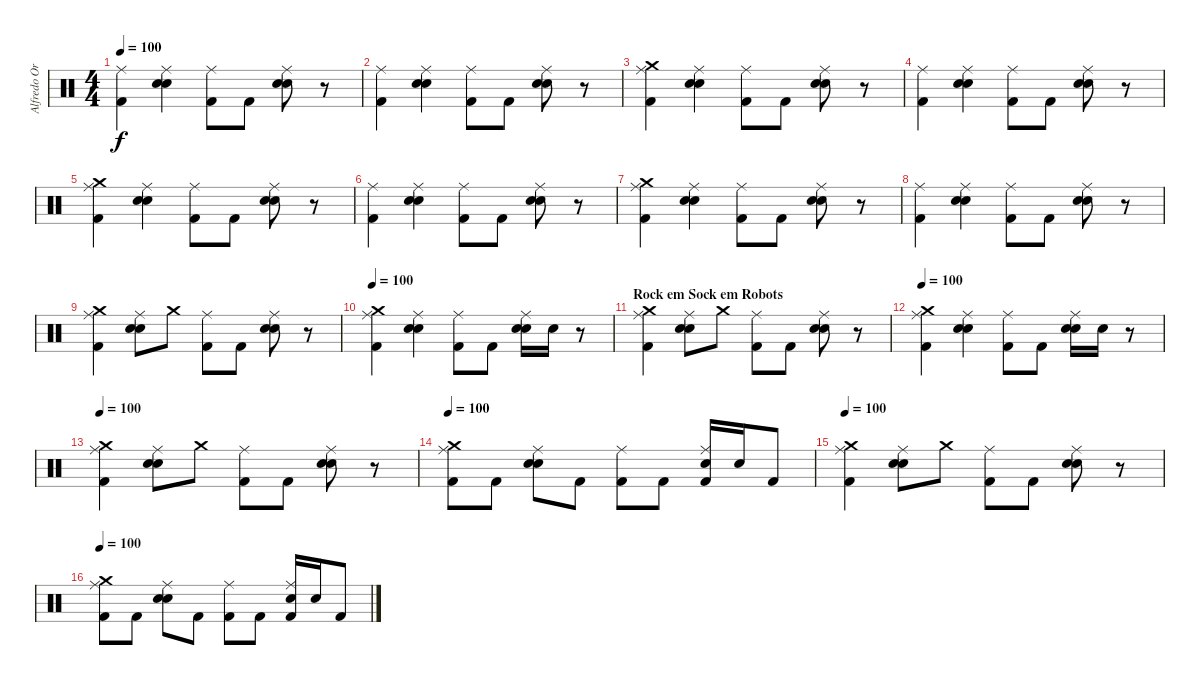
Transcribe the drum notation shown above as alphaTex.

\track ("Alfredo Ortiz (Drums)" "Alfredo Or") {instrument percussion}
\staff {score}
\articulation defaults
\ts (4 4)
\tempo 100
\clef neutral
\ks c
("Kick (hit) 2" "Ride (middle)").4{dy f} ("Snare (hit) 2" "Electric Snare (hit)" "Ride (middle)").4 ("Kick (hit) 2" "Ride (middle)").8 "Kick (hit) 2".8 ("Snare (hit) 2" "Electric Snare (hit)" "Ride (middle)").8 r.8 |
("Kick (hit) 2" "Ride (middle)").4 ("Snare (hit) 2" "Electric Snare (hit)" "Ride (middle)").4 ("Kick (hit) 2" "Ride (middle)").8 "Kick (hit) 2".8 ("Snare (hit) 2" "Electric Snare (hit)" "Ride (middle)").8 r.8 |
("Kick (hit) 2" "Ride (middle)" "Crash medium (hit)").4 ("Snare (hit) 2" "Electric Snare (hit)" "Ride (middle)").4 ("Kick (hit) 2" "Ride (middle)").8 "Kick (hit) 2".8 ("Snare (hit) 2" "Electric Snare (hit)" "Ride (middle)").8 r.8 |
("Kick (hit) 2" "Ride (middle)").4 ("Snare (hit) 2" "Electric Snare (hit)" "Ride (middle)").4 ("Kick (hit) 2" "Ride (middle)").8 "Kick (hit) 2".8 ("Snare (hit) 2" "Electric Snare (hit)" "Ride (middle)").8 r.8 |
("Kick (hit) 2" "Ride (middle)" "Crash medium (hit)").4 ("Snare (hit) 2" "Electric Snare (hit)" "Ride (middle)").4 ("Kick (hit) 2" "Ride (middle)").8 "Kick (hit) 2".8 ("Snare (hit) 2" "Electric Snare (hit)" "Ride (middle)").8 r.8 |
("Kick (hit) 2" "Ride (middle)").4 ("Snare (hit) 2" "Electric Snare (hit)" "Ride (middle)").4 ("Kick (hit) 2" "Ride (middle)").8 "Kick (hit) 2".8 ("Snare (hit) 2" "Electric Snare (hit)" "Ride (middle)").8 r.8 |
("Kick (hit) 2" "Ride (middle)" "Crash medium (hit)").4 ("Snare (hit) 2" "Electric Snare (hit)" "Ride (middle)").4 ("Kick (hit) 2" "Ride (middle)").8 "Kick (hit) 2".8 ("Snare (hit) 2" "Electric Snare (hit)" "Ride (middle)").8 r.8 |
("Kick (hit) 2" "Ride (middle)").4 ("Snare (hit) 2" "Electric Snare (hit)" "Ride (middle)").4 ("Kick (hit) 2" "Ride (middle)").8 "Kick (hit) 2".8 ("Snare (hit) 2" "Electric Snare (hit)" "Ride (middle)").8 r.8 |
("Kick (hit) 2" "Ride (middle)" "Crash medium (hit)").4 ("Snare (hit) 2" "Electric Snare (hit)" "Ride (middle)").8 "Crash medium (hit)".8 ("Kick (hit) 2" "Ride (middle)").8 "Kick (hit) 2".8 ("Snare (hit) 2" "Electric Snare (hit)" "Ride (middle)").8 r.8 |
\tempo 100
("Kick (hit) 2" "Ride (middle)" "Crash medium (hit)").4 ("Snare (hit) 2" "Electric Snare (hit)" "Ride (middle)").4 ("Kick (hit) 2" "Ride (middle)").8 "Kick (hit) 2".8 ("Snare (hit) 2" "Electric Snare (hit)" "Ride (middle)").16 "Snare (hit) 2".16 r.8 |
\section ("" "Rock em Sock em Robots")
("Kick (hit) 2" "Ride (middle)" "Crash medium (hit)").4 ("Snare (hit) 2" "Electric Snare (hit)" "Ride (middle)").8 "Crash medium (hit)".8 ("Kick (hit) 2" "Ride (middle)").8 "Kick (hit) 2".8 ("Snare (hit) 2" "Electric Snare (hit)" "Ride (middle)").8 r.8 |
\tempo 100
("Kick (hit) 2" "Ride (middle)" "Crash medium (hit)").4 ("Snare (hit) 2" "Electric Snare (hit)" "Ride (middle)").4 ("Kick (hit) 2" "Ride (middle)").8 "Kick (hit) 2".8 ("Snare (hit) 2" "Electric Snare (hit)" "Ride (middle)").16 "Snare (hit) 2".16 r.8 |
\tempo 100
("Kick (hit) 2" "Ride (middle)" "Crash medium (hit)").4 ("Snare (hit) 2" "Electric Snare (hit)" "Ride (middle)").8 "Crash medium (hit)".8 ("Kick (hit) 2" "Ride (middle)").8 "Kick (hit) 2".8 ("Snare (hit) 2" "Electric Snare (hit)" "Ride (middle)").8 r.8 |
\tempo 100
("Kick (hit) 2" "Ride (middle)" "Crash medium (hit)").8 "Kick (hit) 2".8 ("Snare (hit) 2" "Electric Snare (hit)" "Ride (middle)").8 "Kick (hit) 2".8 ("Kick (hit) 2" "Ride (middle)").8 "Kick (hit) 2".8 ("Kick (hit) 2" "Electric Snare (hit)" "Ride (middle)").16 "Snare (hit) 2".16 "Kick (hit) 2".8 |
\tempo 100
("Kick (hit) 2" "Ride (middle)" "Crash medium (hit)").4 ("Snare (hit) 2" "Electric Snare (hit)" "Ride (middle)").8 "Crash medium (hit)".8 ("Kick (hit) 2" "Ride (middle)").8 "Kick (hit) 2".8 ("Snare (hit) 2" "Electric Snare (hit)" "Ride (middle)").8 r.8 |
\tempo 100
("Kick (hit) 2" "Ride (middle)" "Crash medium (hit)").8 "Kick (hit) 2".8 ("Snare (hit) 2" "Electric Snare (hit)" "Ride (middle)").8 "Kick (hit) 2".8 ("Kick (hit) 2" "Ride (middle)").8 "Kick (hit) 2".8 ("Kick (hit) 2" "Electric Snare (hit)" "Ride (middle)").16 "Snare (hit) 2".16 "Kick (hit) 2".8
